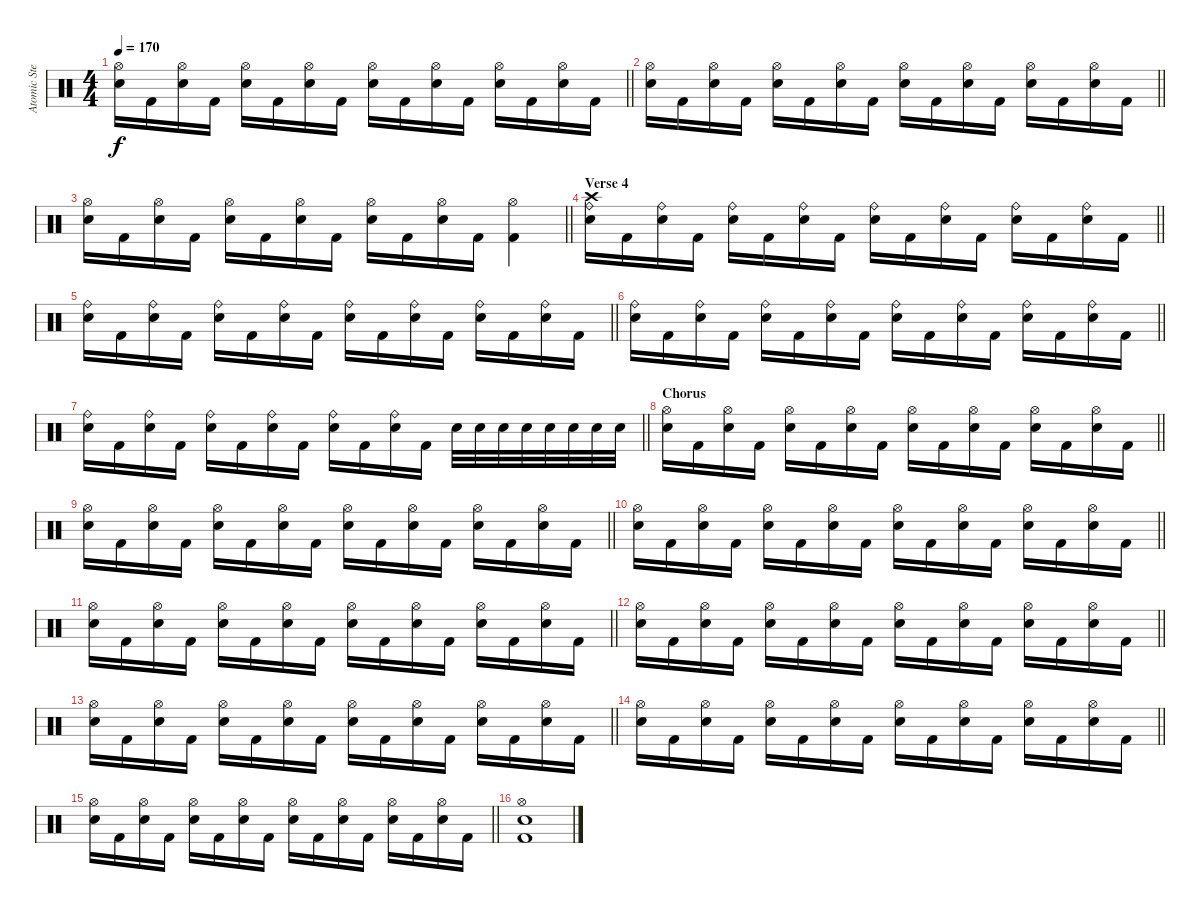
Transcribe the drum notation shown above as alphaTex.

\track ("Atomic Steif" "Atomic Ste") {instrument percussion}
\staff {score}
\articulation defaults
\ts (4 4)
\tempo 170
\clef neutral
\barLineRight lightlight
\ks c
("Hi-Hat (open)" "Electric Snare (hit)").16{dy f} "Kick (hit) 2".16 ("Hi-Hat (open)" "Electric Snare (hit)").16 "Kick (hit) 2".16 ("Hi-Hat (open)" "Electric Snare (hit)").16 "Kick (hit) 2".16 ("Hi-Hat (open)" "Electric Snare (hit)").16 "Kick (hit) 2".16 ("Hi-Hat (open)" "Electric Snare (hit)").16 "Kick (hit) 2".16 ("Hi-Hat (open)" "Electric Snare (hit)").16 "Kick (hit) 2".16 ("Hi-Hat (open)" "Electric Snare (hit)").16 "Kick (hit) 2".16 ("Hi-Hat (open)" "Electric Snare (hit)").16 "Kick (hit) 2".16 |
\barLineRight lightlight
("Hi-Hat (open)" "Electric Snare (hit)").16 "Kick (hit) 2".16 ("Hi-Hat (open)" "Electric Snare (hit)").16 "Kick (hit) 2".16 ("Hi-Hat (open)" "Electric Snare (hit)").16 "Kick (hit) 2".16 ("Hi-Hat (open)" "Electric Snare (hit)").16 "Kick (hit) 2".16 ("Hi-Hat (open)" "Electric Snare (hit)").16 "Kick (hit) 2".16 ("Hi-Hat (open)" "Electric Snare (hit)").16 "Kick (hit) 2".16 ("Hi-Hat (open)" "Electric Snare (hit)").16 "Kick (hit) 2".16 ("Hi-Hat (open)" "Electric Snare (hit)").16 "Kick (hit) 2".16 |
\barLineRight lightlight
("Hi-Hat (open)" "Electric Snare (hit)").16 "Kick (hit) 2".16 ("Hi-Hat (open)" "Electric Snare (hit)").16 "Kick (hit) 2".16 ("Hi-Hat (open)" "Electric Snare (hit)").16 "Kick (hit) 2".16 ("Hi-Hat (open)" "Electric Snare (hit)").16 "Kick (hit) 2".16 ("Hi-Hat (open)" "Electric Snare (hit)").16 "Kick (hit) 2".16 ("Hi-Hat (open)" "Electric Snare (hit)").16 "Kick (hit) 2".16 ("Hi-Hat (open)" "Kick (hit) 2").4 |
\section ("" "Verse 4")
\barLineRight lightlight
("Crash high (hit)" "Ride (bell)" "Electric Snare (hit)").16 "Kick (hit) 2".16 ("Ride (bell)" "Electric Snare (hit)").16 "Kick (hit) 2".16 ("Ride (bell)" "Electric Snare (hit)").16 "Kick (hit) 2".16 ("Ride (bell)" "Electric Snare (hit)").16 "Kick (hit) 2".16 ("Ride (bell)" "Electric Snare (hit)").16 "Kick (hit) 2".16 ("Ride (bell)" "Electric Snare (hit)").16 "Kick (hit) 2".16 ("Ride (bell)" "Electric Snare (hit)").16 "Kick (hit) 2".16 ("Ride (bell)" "Electric Snare (hit)").16 "Kick (hit) 2".16 |
\barLineRight lightlight
("Ride (bell)" "Electric Snare (hit)").16 "Kick (hit) 2".16 ("Ride (bell)" "Electric Snare (hit)").16 "Kick (hit) 2".16 ("Ride (bell)" "Electric Snare (hit)").16 "Kick (hit) 2".16 ("Ride (bell)" "Electric Snare (hit)").16 "Kick (hit) 2".16 ("Ride (bell)" "Electric Snare (hit)").16 "Kick (hit) 2".16 ("Ride (bell)" "Electric Snare (hit)").16 "Kick (hit) 2".16 ("Ride (bell)" "Electric Snare (hit)").16 "Kick (hit) 2".16 ("Ride (bell)" "Electric Snare (hit)").16 "Kick (hit) 2".16 |
\barLineRight lightlight
("Ride (bell)" "Electric Snare (hit)").16 "Kick (hit) 2".16 ("Ride (bell)" "Electric Snare (hit)").16 "Kick (hit) 2".16 ("Ride (bell)" "Electric Snare (hit)").16 "Kick (hit) 2".16 ("Ride (bell)" "Electric Snare (hit)").16 "Kick (hit) 2".16 ("Ride (bell)" "Electric Snare (hit)").16 "Kick (hit) 2".16 ("Ride (bell)" "Electric Snare (hit)").16 "Kick (hit) 2".16 ("Ride (bell)" "Electric Snare (hit)").16 "Kick (hit) 2".16 ("Ride (bell)" "Electric Snare (hit)").16 "Kick (hit) 2".16 |
\barLineRight lightlight
("Ride (bell)" "Electric Snare (hit)").16 "Kick (hit) 2".16 ("Ride (bell)" "Electric Snare (hit)").16 "Kick (hit) 2".16 ("Ride (bell)" "Electric Snare (hit)").16 "Kick (hit) 2".16 ("Ride (bell)" "Electric Snare (hit)").16 "Kick (hit) 2".16 ("Ride (bell)" "Electric Snare (hit)").16 "Kick (hit) 2".16 ("Ride (bell)" "Electric Snare (hit)").16 "Kick (hit) 2".16 "Electric Snare (hit)".32 "Electric Snare (hit)".32 "Electric Snare (hit)".32 "Electric Snare (hit)".32 "Electric Snare (hit)".32 "Electric Snare (hit)".32 "Electric Snare (hit)".32 "Electric Snare (hit)".32 |
\section ("" "Chorus")
\barLineRight lightlight
("Hi-Hat (open)" "Electric Snare (hit)").16 "Kick (hit) 2".16 ("Hi-Hat (open)" "Electric Snare (hit)").16 "Kick (hit) 2".16 ("Hi-Hat (open)" "Electric Snare (hit)").16 "Kick (hit) 2".16 ("Hi-Hat (open)" "Electric Snare (hit)").16 "Kick (hit) 2".16 ("Hi-Hat (open)" "Electric Snare (hit)").16 "Kick (hit) 2".16 ("Hi-Hat (open)" "Electric Snare (hit)").16 "Kick (hit) 2".16 ("Hi-Hat (open)" "Electric Snare (hit)").16 "Kick (hit) 2".16 ("Hi-Hat (open)" "Electric Snare (hit)").16 "Kick (hit) 2".16 |
\barLineRight lightlight
("Hi-Hat (open)" "Electric Snare (hit)").16 "Kick (hit) 2".16 ("Hi-Hat (open)" "Electric Snare (hit)").16 "Kick (hit) 2".16 ("Hi-Hat (open)" "Electric Snare (hit)").16 "Kick (hit) 2".16 ("Hi-Hat (open)" "Electric Snare (hit)").16 "Kick (hit) 2".16 ("Hi-Hat (open)" "Electric Snare (hit)").16 "Kick (hit) 2".16 ("Hi-Hat (open)" "Electric Snare (hit)").16 "Kick (hit) 2".16 ("Hi-Hat (open)" "Electric Snare (hit)").16 "Kick (hit) 2".16 ("Hi-Hat (open)" "Electric Snare (hit)").16 "Kick (hit) 2".16 |
\barLineRight lightlight
("Hi-Hat (open)" "Electric Snare (hit)").16 "Kick (hit) 2".16 ("Hi-Hat (open)" "Electric Snare (hit)").16 "Kick (hit) 2".16 ("Hi-Hat (open)" "Electric Snare (hit)").16 "Kick (hit) 2".16 ("Hi-Hat (open)" "Electric Snare (hit)").16 "Kick (hit) 2".16 ("Hi-Hat (open)" "Electric Snare (hit)").16 "Kick (hit) 2".16 ("Hi-Hat (open)" "Electric Snare (hit)").16 "Kick (hit) 2".16 ("Hi-Hat (open)" "Electric Snare (hit)").16 "Kick (hit) 2".16 ("Hi-Hat (open)" "Electric Snare (hit)").16 "Kick (hit) 2".16 |
\barLineRight lightlight
("Hi-Hat (open)" "Electric Snare (hit)").16 "Kick (hit) 2".16 ("Hi-Hat (open)" "Electric Snare (hit)").16 "Kick (hit) 2".16 ("Hi-Hat (open)" "Electric Snare (hit)").16 "Kick (hit) 2".16 ("Hi-Hat (open)" "Electric Snare (hit)").16 "Kick (hit) 2".16 ("Hi-Hat (open)" "Electric Snare (hit)").16 "Kick (hit) 2".16 ("Hi-Hat (open)" "Electric Snare (hit)").16 "Kick (hit) 2".16 ("Hi-Hat (open)" "Electric Snare (hit)").16 "Kick (hit) 2".16 ("Hi-Hat (open)" "Electric Snare (hit)").16 "Kick (hit) 2".16 |
\barLineRight lightlight
("Hi-Hat (open)" "Electric Snare (hit)").16 "Kick (hit) 2".16 ("Hi-Hat (open)" "Electric Snare (hit)").16 "Kick (hit) 2".16 ("Hi-Hat (open)" "Electric Snare (hit)").16 "Kick (hit) 2".16 ("Hi-Hat (open)" "Electric Snare (hit)").16 "Kick (hit) 2".16 ("Hi-Hat (open)" "Electric Snare (hit)").16 "Kick (hit) 2".16 ("Hi-Hat (open)" "Electric Snare (hit)").16 "Kick (hit) 2".16 ("Hi-Hat (open)" "Electric Snare (hit)").16 "Kick (hit) 2".16 ("Hi-Hat (open)" "Electric Snare (hit)").16 "Kick (hit) 2".16 |
\barLineRight lightlight
("Hi-Hat (open)" "Electric Snare (hit)").16 "Kick (hit) 2".16 ("Hi-Hat (open)" "Electric Snare (hit)").16 "Kick (hit) 2".16 ("Hi-Hat (open)" "Electric Snare (hit)").16 "Kick (hit) 2".16 ("Hi-Hat (open)" "Electric Snare (hit)").16 "Kick (hit) 2".16 ("Hi-Hat (open)" "Electric Snare (hit)").16 "Kick (hit) 2".16 ("Hi-Hat (open)" "Electric Snare (hit)").16 "Kick (hit) 2".16 ("Hi-Hat (open)" "Electric Snare (hit)").16 "Kick (hit) 2".16 ("Hi-Hat (open)" "Electric Snare (hit)").16 "Kick (hit) 2".16 |
\barLineRight lightlight
("Hi-Hat (open)" "Electric Snare (hit)").16 "Kick (hit) 2".16 ("Hi-Hat (open)" "Electric Snare (hit)").16 "Kick (hit) 2".16 ("Hi-Hat (open)" "Electric Snare (hit)").16 "Kick (hit) 2".16 ("Hi-Hat (open)" "Electric Snare (hit)").16 "Kick (hit) 2".16 ("Hi-Hat (open)" "Electric Snare (hit)").16 "Kick (hit) 2".16 ("Hi-Hat (open)" "Electric Snare (hit)").16 "Kick (hit) 2".16 ("Hi-Hat (open)" "Electric Snare (hit)").16 "Kick (hit) 2".16 ("Hi-Hat (open)" "Electric Snare (hit)").16 "Kick (hit) 2".16 |
\barLineRight lightlight
("Hi-Hat (open)" "Electric Snare (hit)").16 "Kick (hit) 2".16 ("Hi-Hat (open)" "Electric Snare (hit)").16 "Kick (hit) 2".16 ("Hi-Hat (open)" "Electric Snare (hit)").16 "Kick (hit) 2".16 ("Hi-Hat (open)" "Electric Snare (hit)").16 "Kick (hit) 2".16 ("Hi-Hat (open)" "Electric Snare (hit)").16 "Kick (hit) 2".16 ("Hi-Hat (open)" "Electric Snare (hit)").16 "Kick (hit) 2".16 ("Hi-Hat (open)" "Electric Snare (hit)").16 "Kick (hit) 2".16 ("Hi-Hat (open)" "Electric Snare (hit)").16 "Kick (hit) 2".16 |
("Hi-Hat (open)" "Electric Snare (hit)" "Kick (hit) 2").1
